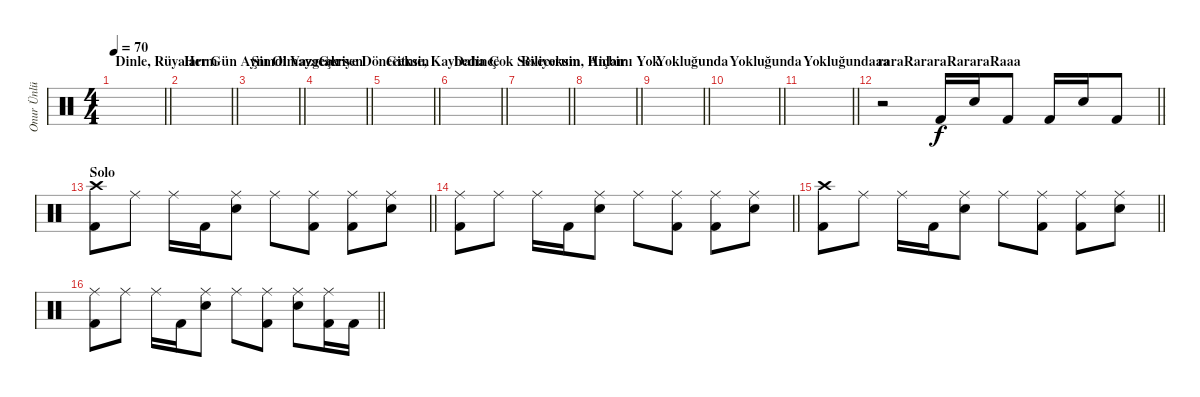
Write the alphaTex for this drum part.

\track ("Onur Ünlü - Davul" "Onur Ünlü ") {instrument percussion}
\staff {score}
\articulation defaults
\ts (4 4)
\section ("" "Dinle, Rüyalarım")
\tempo 70
\clef neutral
\barLineRight lightlight
\ks c
|
\section ("" "Her Gün Aynı Olmayacak")
\barLineRight lightlight
|
\section ("" "Şimdi Vazgeçersen")
\barLineRight lightlight
|
\section ("" "Geriye Döneceksin")
\barLineRight lightlight
|
\section ("" "Gitme, Kaybedince")
\barLineRight lightlight
|
\section ("" "Daha Çok Seveceksin")
\barLineRight lightlight
|
\section ("" "Biliyorum, Hiçbir")
\barLineRight lightlight
|
\section ("" "Anlamı Yok")
\barLineRight lightlight
|
\section ("" "Yokluğunda")
\barLineRight lightlight
|
\section ("" "Yokluğunda")
\barLineRight lightlight
|
\section ("" "Yokluğundaaa")
\barLineRight lightlight
|
\section ("" "raraRararaRararaRaaa")
\barLineRight lightlight
r.2 "Kick (hit) 2".16{dy f} "Snare (hit) 2".16 "Kick (hit) 2".8 "Kick (hit) 2".16 "Snare (hit) 2".16 "Kick (hit) 2".8 |
\section ("" "Solo")
\barLineRight lightlight
("Crash high (hit)" "Kick (hit) 2").8 "Ride (middle)".8 "Ride (middle)".16 "Kick (hit) 2".16 ("Ride (middle)" "Snare (hit) 2").8 "Ride (middle)".8 ("Ride (middle)" "Kick (hit) 2").8 ("Ride (middle)" "Kick (hit) 2").8 ("Ride (middle)" "Snare (hit) 2").8 |
\barLineRight lightlight
("Ride (middle)" "Kick (hit) 2").8 "Ride (middle)".8 "Ride (middle)".16 "Kick (hit) 2".16 ("Ride (middle)" "Snare (hit) 2").8 "Ride (middle)".8 ("Ride (middle)" "Kick (hit) 2").8 ("Ride (middle)" "Kick (hit) 2").8 ("Ride (middle)" "Snare (hit) 2").8 |
\barLineRight lightlight
("Crash high (hit)" "Kick (hit) 2").8 "Ride (middle)".8 "Ride (middle)".16 "Kick (hit) 2".16 ("Ride (middle)" "Snare (hit) 2").8 "Ride (middle)".8 ("Ride (middle)" "Kick (hit) 2").8 ("Ride (middle)" "Kick (hit) 2").8 ("Ride (middle)" "Snare (hit) 2").8 |
\barLineRight lightlight
("Ride (middle)" "Kick (hit) 2").8 "Ride (middle)".8 "Ride (middle)".16 "Kick (hit) 2".16 ("Ride (middle)" "Snare (hit) 2").8 "Ride (middle)".8 ("Ride (middle)" "Kick (hit) 2").8 ("Ride (middle)" "Snare (hit) 2").8 ("Ride (middle)" "Kick (hit) 2").16 "Kick (hit) 2".16
